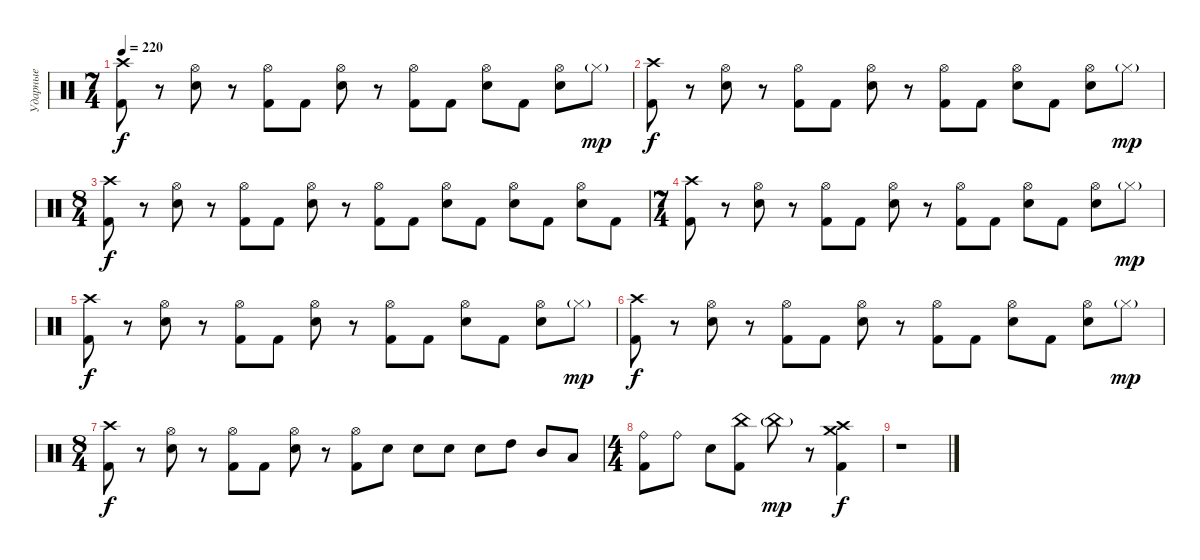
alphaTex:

\track ("Ударные" "Ударные") {instrument percussion}
\staff {score}
\articulation defaults
\ts (7 4)
\tempo 220
\clef neutral
\ks c
("Crash high (hit)" "Kick (hit) 2").8{dy f} r.8 ("Hi-Hat (open)" "Electric Snare (hit)").8 r.8 ("Hi-Hat (open)" "Kick (hit) 2").8 "Kick (hit) 2".8 ("Hi-Hat (open)" "Electric Snare (hit)").8 r.8 ("Hi-Hat (open)" "Kick (hit) 2").8 "Kick (hit) 2".8 ("Hi-Hat (open)" "Electric Snare (hit)").8 "Kick (hit) 2".8 ("Hi-Hat (open)" "Electric Snare (hit)").8 "Hi-Hat (closed)"{g}.8{dy mp} |
("Crash high (hit)" "Kick (hit) 2").8{dy f} r.8 ("Hi-Hat (open)" "Electric Snare (hit)").8 r.8 ("Hi-Hat (open)" "Kick (hit) 2").8 "Kick (hit) 2".8 ("Hi-Hat (open)" "Electric Snare (hit)").8 r.8 ("Hi-Hat (open)" "Kick (hit) 2").8 "Kick (hit) 2".8 ("Hi-Hat (open)" "Electric Snare (hit)").8 "Kick (hit) 2".8 ("Hi-Hat (open)" "Electric Snare (hit)").8 "Hi-Hat (closed)"{g}.8{dy mp} |
\ts (8 4)
("Crash high (hit)" "Kick (hit) 2").8{dy f} r.8 ("Hi-Hat (open)" "Electric Snare (hit)").8 r.8 ("Hi-Hat (open)" "Kick (hit) 2").8 "Kick (hit) 2".8 ("Hi-Hat (open)" "Electric Snare (hit)").8 r.8 ("Hi-Hat (open)" "Kick (hit) 2").8 "Kick (hit) 2".8 ("Hi-Hat (open)" "Electric Snare (hit)").8 "Kick (hit) 2".8 ("Hi-Hat (open)" "Electric Snare (hit)").8 "Kick (hit) 2".8 ("Hi-Hat (open)" "Electric Snare (hit)").8 "Kick (hit) 2".8 |
\ts (7 4)
("Crash high (hit)" "Kick (hit) 2").8 r.8 ("Hi-Hat (open)" "Electric Snare (hit)").8 r.8 ("Hi-Hat (open)" "Kick (hit) 2").8 "Kick (hit) 2".8 ("Hi-Hat (open)" "Electric Snare (hit)").8 r.8 ("Hi-Hat (open)" "Kick (hit) 2").8 "Kick (hit) 2".8 ("Hi-Hat (open)" "Electric Snare (hit)").8 "Kick (hit) 2".8 ("Hi-Hat (open)" "Electric Snare (hit)").8 "Hi-Hat (closed)"{g}.8{dy mp} |
("Crash high (hit)" "Kick (hit) 2").8{dy f} r.8 ("Hi-Hat (open)" "Electric Snare (hit)").8 r.8 ("Hi-Hat (open)" "Kick (hit) 2").8 "Kick (hit) 2".8 ("Hi-Hat (open)" "Electric Snare (hit)").8 r.8 ("Hi-Hat (open)" "Kick (hit) 2").8 "Kick (hit) 2".8 ("Hi-Hat (open)" "Electric Snare (hit)").8 "Kick (hit) 2".8 ("Hi-Hat (open)" "Electric Snare (hit)").8 "Hi-Hat (closed)"{g}.8{dy mp} |
("Crash high (hit)" "Kick (hit) 2").8{dy f} r.8 ("Hi-Hat (open)" "Electric Snare (hit)").8 r.8 ("Hi-Hat (open)" "Kick (hit) 2").8 "Kick (hit) 2".8 ("Hi-Hat (open)" "Electric Snare (hit)").8 r.8 ("Hi-Hat (open)" "Kick (hit) 2").8 "Kick (hit) 2".8 ("Hi-Hat (open)" "Electric Snare (hit)").8 "Kick (hit) 2".8 ("Hi-Hat (open)" "Electric Snare (hit)").8 "Hi-Hat (closed)"{g}.8{dy mp} |
\ts (8 4)
("Crash high (hit)" "Kick (hit) 2").8{dy f} r.8 ("Hi-Hat (open)" "Electric Snare (hit)").8 r.8 ("Hi-Hat (open)" "Kick (hit) 2").8 "Kick (hit) 2".8 ("Hi-Hat (open)" "Electric Snare (hit)").8 r.8 ("Hi-Hat (open)" "Kick (hit) 2").8 "Electric Snare (hit)".8 "Electric Snare (hit)".8 "Electric Snare (hit)".8 "Electric Snare (hit)".8 "High Tom (hit)".8 "Mid Tom (hit)".8 "Low Floor Tom (hit)".8 |
\ts (4 4)
("Ride (bell)" "Kick (hit) 2").8 "Ride (bell)".8 "Electric Snare (hit)".8 ("China (hit)" "Kick (hit) 2").8 "China (hit)"{g}.8{dy mp} r.8 ("Crash high (hit)" "Crash medium (hit)" "Kick (hit) 2").4{dy f} |
r.1
